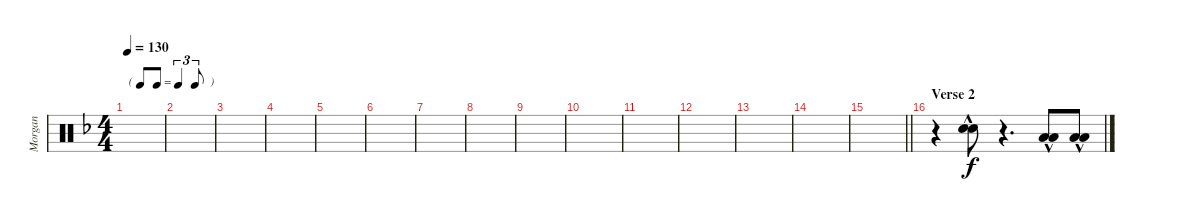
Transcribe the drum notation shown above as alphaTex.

\track ("Morgan" "Morgan") {instrument percussion}
\staff {score}
\articulation defaults
\ts (4 4)
\tf triplet8th
\tempo 130
\clef neutral
\ks dminor
|
|
|
|
|
|
|
|
|
|
|
|
|
|
\barLineRight lightlight
|
\section ("" "Verse 2")
r.4 ("Snare (hit) 2"{hac} "Snare (hit) 2"{hac}).8 r.4{d} ("Low Tom (hit)"{hac} "Low Tom (hit)"{hac}).8 ("Low Tom (hit)"{hac} "Low Tom (hit)"{hac}).8
